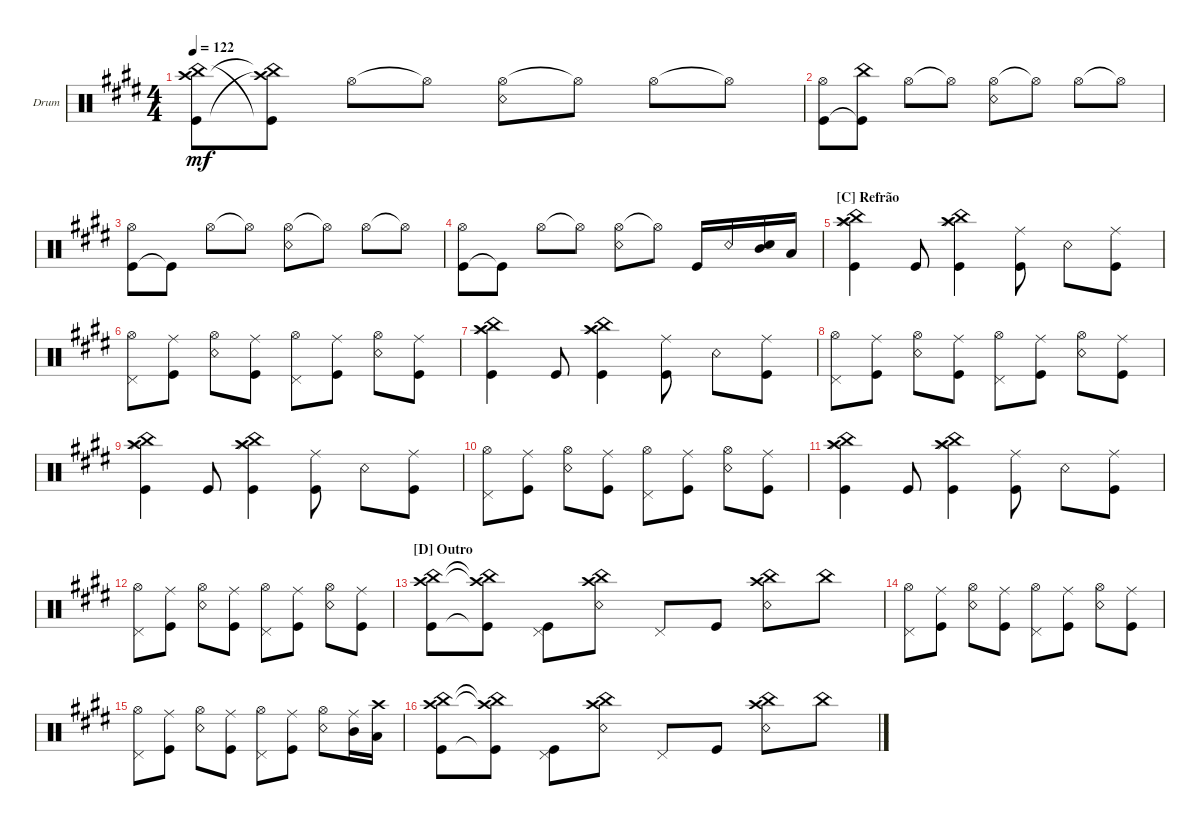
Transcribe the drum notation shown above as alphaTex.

\defaultSystemsLayout 4
\bracketExtendMode groupsimilarinstruments
\firstSystemTrackNameOrientation horizontal
\otherSystemsTrackNameOrientation horizontal
\track ("Bateria" "Drum") {multiBarRest instrument percussion}
\staff {score}
\articulation defaults
\ts (4 4)
\tempo 122
\clef neutral
\ks e
("China (hit)" "Crash high (hit)" "Kick (hit)").8{dy mf} ("Kick (hit)"{t} "China (hit)"{t} "Crash high (hit)"{t}).8 "Hi-Hat (open)".8 "Hi-Hat (open)"{t}.8 ("Hi-Hat (open)" "Snare (rim shot)").8 "Hi-Hat (open)"{t}.8 "Hi-Hat (open)".8 "Hi-Hat (open)"{t}.8 |
("Kick (hit)" "Hi-Hat (open)").8 ("Kick (hit)"{t} "China (hit)").8 "Hi-Hat (open)".8 "Hi-Hat (open)"{t}.8 ("Hi-Hat (open)" "Snare (rim shot)").8 "Hi-Hat (open)"{t}.8 "Hi-Hat (open)".8 "Hi-Hat (open)"{t}.8 |
("Kick (hit)" "Hi-Hat (open)").8 "Kick (hit)"{t}.8 "Hi-Hat (open)".8 "Hi-Hat (open)"{t}.8 ("Hi-Hat (open)" "Snare (rim shot)").8 "Hi-Hat (open)"{t}.8 "Hi-Hat (open)".8 "Hi-Hat (open)"{t}.8 |
("Kick (hit)" "Hi-Hat (open)").8 "Kick (hit)"{t}.8 "Hi-Hat (open)".8 "Hi-Hat (open)"{t}.8 ("Hi-Hat (open)" "Snare (rim shot)").8 "Hi-Hat (open)"{t}.8 "Kick (hit)".16 "Snare (rim shot)".16 ("Mid Tom (hit)" "Snare (hit) 2").16 "Low Tom (hit)".16 |
\section ("C" "Refrão")
("Kick (hit)" "Crash high (hit)" "China (hit)" "Splash (hit)").4 "Kick (hit)".8 ("Kick (hit)" "Crash high (hit)" "China (hit)" "Splash (hit)").4 ("Kick (hit)" "Ride (middle)").8 "Snare (rim shot)".8 ("Kick (hit)" "Ride (middle)").8 |
("Pedal Hi-Hat (hit)" "Hi-Hat (open)").8 ("Kick (hit)" "Ride (middle)").8 ("Snare (rim shot)" "Hi-Hat (open)").8 ("Kick (hit)" "Ride (middle)").8 ("Pedal Hi-Hat (hit)" "Hi-Hat (open)").8 ("Kick (hit)" "Ride (middle)").8 ("Snare (rim shot)" "Hi-Hat (open)").8 ("Kick (hit)" "Ride (middle)").8 |
("Kick (hit)" "Crash high (hit)" "China (hit)" "Splash (hit)").4 "Kick (hit)".8 ("Kick (hit)" "Crash high (hit)" "China (hit)" "Splash (hit)").4 ("Kick (hit)" "Ride (middle)").8 "Snare (rim shot)".8 ("Kick (hit)" "Ride (middle)").8 |
("Pedal Hi-Hat (hit)" "Hi-Hat (open)").8 ("Kick (hit)" "Ride (middle)").8 ("Snare (rim shot)" "Hi-Hat (open)").8 ("Kick (hit)" "Ride (middle)").8 ("Pedal Hi-Hat (hit)" "Hi-Hat (open)").8 ("Kick (hit)" "Ride (middle)").8 ("Snare (rim shot)" "Hi-Hat (open)").8 ("Kick (hit)" "Ride (middle)").8 |
("Kick (hit)" "Crash high (hit)" "China (hit)" "Splash (hit)").4 "Kick (hit)".8 ("Kick (hit)" "Crash high (hit)" "China (hit)" "Splash (hit)").4 ("Kick (hit)" "Ride (middle)").8 "Snare (rim shot)".8 ("Kick (hit)" "Ride (middle)").8 |
("Pedal Hi-Hat (hit)" "Hi-Hat (open)").8 ("Kick (hit)" "Ride (middle)").8 ("Snare (rim shot)" "Hi-Hat (open)").8 ("Kick (hit)" "Ride (middle)").8 ("Pedal Hi-Hat (hit)" "Hi-Hat (open)").8 ("Kick (hit)" "Ride (middle)").8 ("Snare (rim shot)" "Hi-Hat (open)").8 ("Kick (hit)" "Ride (middle)").8 |
("Kick (hit)" "Crash high (hit)" "China (hit)" "Splash (hit)").4 "Kick (hit)".8 ("Kick (hit)" "Crash high (hit)" "China (hit)" "Splash (hit)").4 ("Kick (hit)" "Ride (middle)").8 "Snare (rim shot)".8 ("Kick (hit)" "Ride (middle)").8 |
("Pedal Hi-Hat (hit)" "Hi-Hat (open)").8 ("Kick (hit)" "Ride (middle)").8 ("Snare (rim shot)" "Hi-Hat (open)").8 ("Kick (hit)" "Ride (middle)").8 ("Pedal Hi-Hat (hit)" "Hi-Hat (open)").8 ("Kick (hit)" "Ride (middle)").8 ("Snare (rim shot)" "Hi-Hat (open)").8 ("Kick (hit)" "Ride (middle)").8 |
\section ("D" "Outro")
("Kick (hit)" "Crash high (hit)" "China (hit)").8 ("Kick (hit)"{t} "Crash high (hit)"{t} "China (hit)"{t}).8 ("Kick (hit)" "Pedal Hi-Hat (hit)").8 ("Snare (rim shot)" "China (hit)" "Crash high (hit)").8 "Pedal Hi-Hat (hit)".8 "Kick (hit)".8 ("Snare (rim shot)" "Crash high (hit)" "China (hit)").8 "China (hit)".8 |
("Pedal Hi-Hat (hit)" "Hi-Hat (open)").8 ("Kick (hit)" "Ride (middle)").8 ("Snare (rim shot)" "Hi-Hat (open)").8 ("Kick (hit)" "Ride (middle)").8 ("Pedal Hi-Hat (hit)" "Hi-Hat (open)").8 ("Kick (hit)" "Ride (middle)").8 ("Snare (rim shot)" "Hi-Hat (open)").8 ("Kick (hit)" "Ride (middle)").8 |
("Pedal Hi-Hat (hit)" "Hi-Hat (open)").8 ("Kick (hit)" "Ride (middle)").8 ("Snare (rim shot)" "Hi-Hat (open)").8 ("Kick (hit)" "Ride (middle)").8 ("Pedal Hi-Hat (hit)" "Hi-Hat (open)").8 ("Kick (hit)" "Ride (middle)").8 ("Snare (rim shot)" "Hi-Hat (open)").8 ("Ride (middle)" "Mid Tom (hit)").16 ("Low Tom (hit)" "Crash high (hit)").16 |
("Kick (hit)" "Crash high (hit)" "China (hit)").8 ("Kick (hit)"{t} "Crash high (hit)"{t} "China (hit)"{t}).8 ("Kick (hit)" "Pedal Hi-Hat (hit)").8 ("Snare (rim shot)" "China (hit)" "Crash high (hit)").8 "Pedal Hi-Hat (hit)".8 "Kick (hit)".8 ("Snare (rim shot)" "Crash high (hit)" "China (hit)").8 "China (hit)".8
